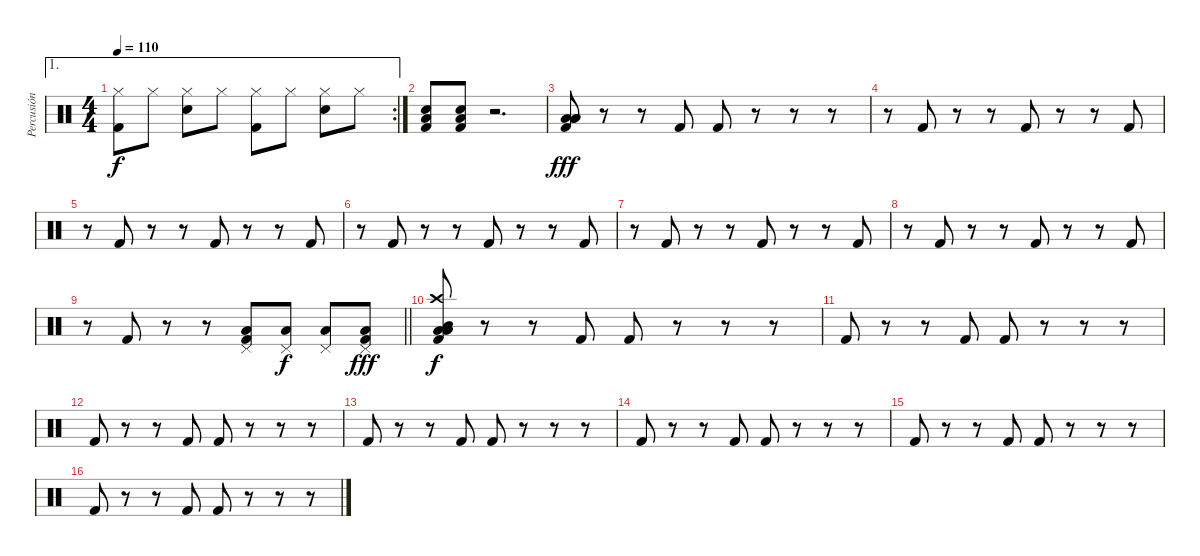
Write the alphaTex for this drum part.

\track ("Percusión" "Percusión") {instrument percussion}
\staff {score}
\articulation defaults
\ae 1
\rc 2
\ts (4 4)
\tempo 110
\clef neutral
\ks c
("Hi-Hat (closed)" "Kick (hit) 2").8{dy f} "Hi-Hat (closed)".8 ("Hi-Hat (closed)" "Snare (hit) 2").8 "Hi-Hat (closed)".8 ("Hi-Hat (closed)" "Kick (hit) 2").8 "Hi-Hat (closed)".8 ("Hi-Hat (closed)" "Snare (hit) 2").8 "Hi-Hat (closed)".8 |
("Snare (hit) 2" "Low Floor Tom (hit)" "Kick (hit) 2").8 ("Snare (hit) 2" "Low Floor Tom (hit)" "Kick (hit) 2").8 r.2{d} |
("Low Floor Tom (hit)" "Low Tom (hit)" "Low Floor Tom (hit)" "Kick (hit) 2").8{dy fff} r.8 r.8 "Kick (hit) 2".8 "Kick (hit) 2".8 r.8 r.8 r.8 |
r.8 "Kick (hit) 2".8 r.8 r.8 "Kick (hit) 2".8 r.8 r.8 "Kick (hit) 2".8 |
r.8 "Kick (hit) 2".8 r.8 r.8 "Kick (hit) 2".8 r.8 r.8 "Kick (hit) 2".8 |
r.8 "Kick (hit) 2".8 r.8 r.8 "Kick (hit) 2".8 r.8 r.8 "Kick (hit) 2".8 |
r.8 "Kick (hit) 2".8 r.8 r.8 "Kick (hit) 2".8 r.8 r.8 "Kick (hit) 2".8 |
r.8 "Kick (hit) 2".8 r.8 r.8 "Kick (hit) 2".8 r.8 r.8 "Kick (hit) 2".8 |
\barLineRight lightlight
r.8 "Kick (hit) 2".8 r.8 r.8 ("Pedal Hi-Hat (hit)" "Low Floor Tom (hit)" "Kick (hit) 2").8 ("Pedal Hi-Hat (hit)" "Low Floor Tom (hit)").8{dy f} ("Pedal Hi-Hat (hit)" "Low Floor Tom (hit)").8 ("Pedal Hi-Hat (hit)" "Low Floor Tom (hit)" "Kick (hit) 2").8{dy fff} |
("Crash high (hit)" "Low Floor Tom (hit)" "Low Tom (hit)" "Mid Tom (hit)" "Kick (hit) 2").8{dy f} r.8 r.8 "Kick (hit) 2".8 "Kick (hit) 2".8 r.8 r.8 r.8 |
"Kick (hit) 2".8 r.8 r.8 "Kick (hit) 2".8 "Kick (hit) 2".8 r.8 r.8 r.8 |
"Kick (hit) 2".8 r.8 r.8 "Kick (hit) 2".8 "Kick (hit) 2".8 r.8 r.8 r.8 |
"Kick (hit) 2".8 r.8 r.8 "Kick (hit) 2".8 "Kick (hit) 2".8 r.8 r.8 r.8 |
"Kick (hit) 2".8 r.8 r.8 "Kick (hit) 2".8 "Kick (hit) 2".8 r.8 r.8 r.8 |
"Kick (hit) 2".8 r.8 r.8 "Kick (hit) 2".8 "Kick (hit) 2".8 r.8 r.8 r.8 |
"Kick (hit) 2".8 r.8 r.8 "Kick (hit) 2".8 "Kick (hit) 2".8 r.8 r.8 r.8
